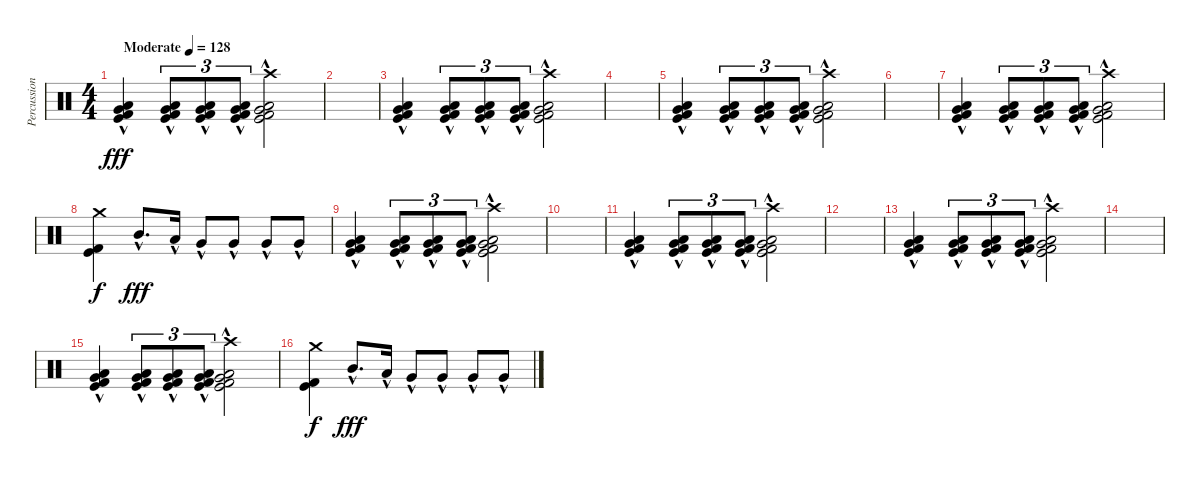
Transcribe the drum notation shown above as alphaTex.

\track ("Percussion" "Percussion") {instrument percussion}
\staff {score}
\articulation defaults
\ts (4 4)
\tempo (128 "Moderate")
\clef neutral
\ks c
("Very Low Tom (hit)"{hac} "Low Tom (hit)"{hac} "Kick (hit)"{hac} "Kick (hit) 2"{hac}).4{dy fff} ("Very Low Tom (hit)"{hac} "Low Tom (hit)"{hac} "Kick (hit)"{hac} "Kick (hit) 2"{hac}).8{tu (3 2)} ("Very Low Tom (hit)"{hac} "Low Tom (hit)"{hac} "Kick (hit)"{hac} "Kick (hit) 2"{hac}).8{tu (3 2)} ("Very Low Tom (hit)"{hac} "Low Tom (hit)"{hac} "Kick (hit)"{hac} "Kick (hit) 2"{hac}).8{tu (3 2)} ("Crash high (hit)"{hac} "Very Low Tom (hit)"{hac} "Low Tom (hit)"{hac} "Kick (hit)"{hac} "Kick (hit) 2"{hac}).2 |
|
("Very Low Tom (hit)"{hac} "Low Tom (hit)"{hac} "Kick (hit)"{hac} "Kick (hit) 2"{hac}).4 ("Very Low Tom (hit)"{hac} "Low Tom (hit)"{hac} "Kick (hit)"{hac} "Kick (hit) 2"{hac}).8{tu (3 2)} ("Very Low Tom (hit)"{hac} "Low Tom (hit)"{hac} "Kick (hit)"{hac} "Kick (hit) 2"{hac}).8{tu (3 2)} ("Very Low Tom (hit)"{hac} "Low Tom (hit)"{hac} "Kick (hit)"{hac} "Kick (hit) 2"{hac}).8{tu (3 2)} ("Crash high (hit)"{hac} "Very Low Tom (hit)"{hac} "Low Tom (hit)"{hac} "Kick (hit)"{hac} "Kick (hit) 2"{hac}).2 |
|
("Very Low Tom (hit)"{hac} "Low Tom (hit)"{hac} "Kick (hit)"{hac} "Kick (hit) 2"{hac}).4 ("Very Low Tom (hit)"{hac} "Low Tom (hit)"{hac} "Kick (hit)"{hac} "Kick (hit) 2"{hac}).8{tu (3 2)} ("Very Low Tom (hit)"{hac} "Low Tom (hit)"{hac} "Kick (hit)"{hac} "Kick (hit) 2"{hac}).8{tu (3 2)} ("Very Low Tom (hit)"{hac} "Low Tom (hit)"{hac} "Kick (hit)"{hac} "Kick (hit) 2"{hac}).8{tu (3 2)} ("Crash high (hit)"{hac} "Very Low Tom (hit)"{hac} "Low Tom (hit)"{hac} "Kick (hit)"{hac} "Kick (hit) 2"{hac}).2 |
|
("Very Low Tom (hit)"{hac} "Low Tom (hit)"{hac} "Kick (hit)"{hac} "Kick (hit) 2"{hac}).4 ("Very Low Tom (hit)"{hac} "Low Tom (hit)"{hac} "Kick (hit)"{hac} "Kick (hit) 2"{hac}).8{tu (3 2)} ("Very Low Tom (hit)"{hac} "Low Tom (hit)"{hac} "Kick (hit)"{hac} "Kick (hit) 2"{hac}).8{tu (3 2)} ("Very Low Tom (hit)"{hac} "Low Tom (hit)"{hac} "Kick (hit)"{hac} "Kick (hit) 2"{hac}).8{tu (3 2)} ("Crash high (hit)"{hac} "Very Low Tom (hit)"{hac} "Low Tom (hit)"{hac} "Kick (hit)"{hac} "Kick (hit) 2"{hac}).2 |
("Crash medium (hit)" "Kick (hit)" "Kick (hit) 2").4{dy f} "Mid Tom (hit)"{hac}.8{d dy fff} "Low Tom (hit)"{hac}.16 "Very Low Tom (hit)"{hac}.8 "Very Low Tom (hit)"{hac}.8 "Very Low Tom (hit)"{hac}.8 "Very Low Tom (hit)"{hac}.8 |
("Very Low Tom (hit)"{hac} "Low Tom (hit)"{hac} "Kick (hit)"{hac} "Kick (hit) 2"{hac}).4 ("Very Low Tom (hit)"{hac} "Low Tom (hit)"{hac} "Kick (hit)"{hac} "Kick (hit) 2"{hac}).8{tu (3 2)} ("Very Low Tom (hit)"{hac} "Low Tom (hit)"{hac} "Kick (hit)"{hac} "Kick (hit) 2"{hac}).8{tu (3 2)} ("Very Low Tom (hit)"{hac} "Low Tom (hit)"{hac} "Kick (hit)"{hac} "Kick (hit) 2"{hac}).8{tu (3 2)} ("Crash high (hit)"{hac} "Very Low Tom (hit)"{hac} "Low Tom (hit)"{hac} "Kick (hit)"{hac} "Kick (hit) 2"{hac}).2 |
|
("Very Low Tom (hit)"{hac} "Low Tom (hit)"{hac} "Kick (hit)"{hac} "Kick (hit) 2"{hac}).4 ("Very Low Tom (hit)"{hac} "Low Tom (hit)"{hac} "Kick (hit)"{hac} "Kick (hit) 2"{hac}).8{tu (3 2)} ("Very Low Tom (hit)"{hac} "Low Tom (hit)"{hac} "Kick (hit)"{hac} "Kick (hit) 2"{hac}).8{tu (3 2)} ("Very Low Tom (hit)"{hac} "Low Tom (hit)"{hac} "Kick (hit)"{hac} "Kick (hit) 2"{hac}).8{tu (3 2)} ("Crash high (hit)"{hac} "Very Low Tom (hit)"{hac} "Low Tom (hit)"{hac} "Kick (hit)"{hac} "Kick (hit) 2"{hac}).2 |
|
("Very Low Tom (hit)"{hac} "Low Tom (hit)"{hac} "Kick (hit)"{hac} "Kick (hit) 2"{hac}).4 ("Very Low Tom (hit)"{hac} "Low Tom (hit)"{hac} "Kick (hit)"{hac} "Kick (hit) 2"{hac}).8{tu (3 2)} ("Very Low Tom (hit)"{hac} "Low Tom (hit)"{hac} "Kick (hit)"{hac} "Kick (hit) 2"{hac}).8{tu (3 2)} ("Very Low Tom (hit)"{hac} "Low Tom (hit)"{hac} "Kick (hit)"{hac} "Kick (hit) 2"{hac}).8{tu (3 2)} ("Crash high (hit)"{hac} "Very Low Tom (hit)"{hac} "Low Tom (hit)"{hac} "Kick (hit)"{hac} "Kick (hit) 2"{hac}).2 |
|
("Very Low Tom (hit)"{hac} "Low Tom (hit)"{hac} "Kick (hit)"{hac} "Kick (hit) 2"{hac}).4 ("Very Low Tom (hit)"{hac} "Low Tom (hit)"{hac} "Kick (hit)"{hac} "Kick (hit) 2"{hac}).8{tu (3 2)} ("Very Low Tom (hit)"{hac} "Low Tom (hit)"{hac} "Kick (hit)"{hac} "Kick (hit) 2"{hac}).8{tu (3 2)} ("Very Low Tom (hit)"{hac} "Low Tom (hit)"{hac} "Kick (hit)"{hac} "Kick (hit) 2"{hac}).8{tu (3 2)} ("Crash high (hit)"{hac} "Very Low Tom (hit)"{hac} "Low Tom (hit)"{hac} "Kick (hit)"{hac} "Kick (hit) 2"{hac}).2 |
("Crash medium (hit)" "Kick (hit)" "Kick (hit) 2").4{dy f} "Mid Tom (hit)"{hac}.8{d dy fff} "Low Tom (hit)"{hac}.16 "Very Low Tom (hit)"{hac}.8 "Very Low Tom (hit)"{hac}.8 "Very Low Tom (hit)"{hac}.8 "Very Low Tom (hit)"{hac}.8
